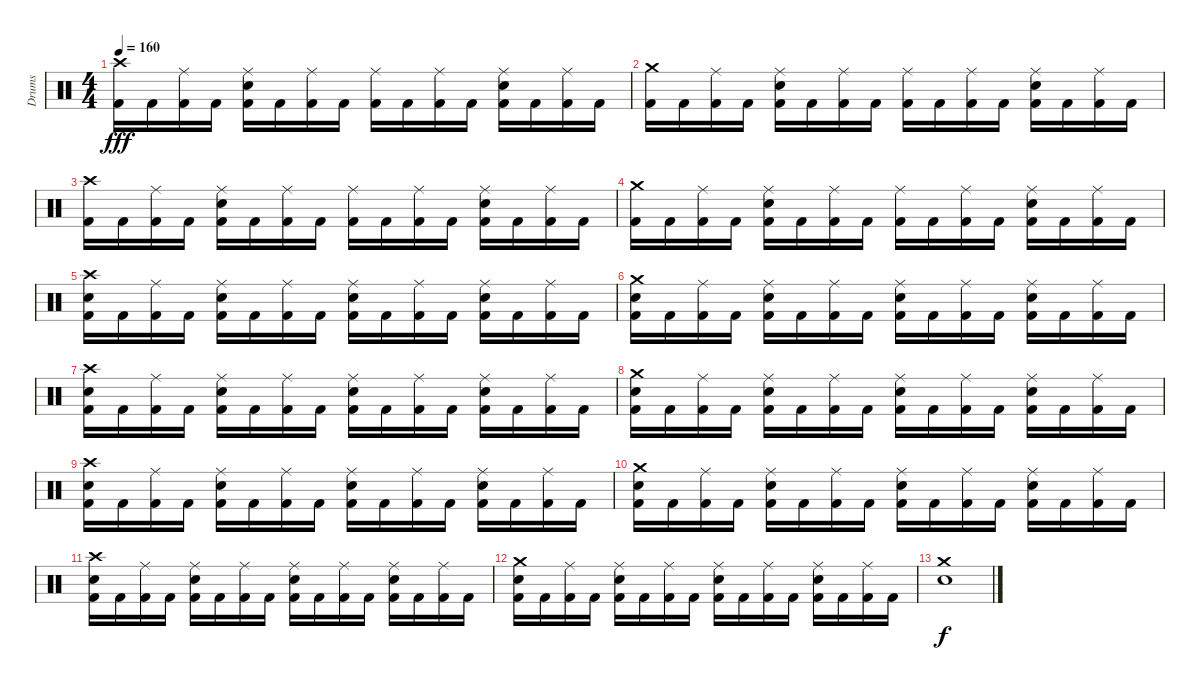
\track ("Drums" "Drums") {instrument percussion}
\staff {score}
\articulation defaults
\ts (4 4)
\tempo 160
\clef neutral
\ks c
("Crash high (hit)" "Kick (hit) 2").16{dy fff} "Kick (hit) 2".16 ("Ride (middle)" "Kick (hit) 2").16 "Kick (hit) 2".16 ("Ride (middle)" "Electric Snare (hit)" "Kick (hit) 2").16 "Kick (hit) 2".16 ("Ride (middle)" "Kick (hit) 2").16 "Kick (hit) 2".16 ("Ride (middle)" "Kick (hit) 2").16 "Kick (hit) 2".16 ("Ride (middle)" "Kick (hit) 2").16 "Kick (hit) 2".16 ("Ride (middle)" "Electric Snare (hit)" "Kick (hit) 2").16 "Kick (hit) 2".16 ("Ride (middle)" "Kick (hit) 2").16 "Kick (hit) 2".16 |
("Crash medium (hit)" "Kick (hit) 2").16 "Kick (hit) 2".16 ("Ride (middle)" "Kick (hit) 2").16 "Kick (hit) 2".16 ("Ride (middle)" "Electric Snare (hit)" "Kick (hit) 2").16 "Kick (hit) 2".16 ("Ride (middle)" "Kick (hit) 2").16 "Kick (hit) 2".16 ("Ride (middle)" "Kick (hit) 2").16 "Kick (hit) 2".16 ("Ride (middle)" "Kick (hit) 2").16 "Kick (hit) 2".16 ("Ride (middle)" "Electric Snare (hit)" "Kick (hit) 2").16 "Kick (hit) 2".16 ("Ride (middle)" "Kick (hit) 2").16 "Kick (hit) 2".16 |
("Crash high (hit)" "Kick (hit) 2").16 "Kick (hit) 2".16 ("Ride (middle)" "Kick (hit) 2").16 "Kick (hit) 2".16 ("Ride (middle)" "Electric Snare (hit)" "Kick (hit) 2").16 "Kick (hit) 2".16 ("Ride (middle)" "Kick (hit) 2").16 "Kick (hit) 2".16 ("Ride (middle)" "Kick (hit) 2").16 "Kick (hit) 2".16 ("Ride (middle)" "Kick (hit) 2").16 "Kick (hit) 2".16 ("Ride (middle)" "Electric Snare (hit)" "Kick (hit) 2").16 "Kick (hit) 2".16 ("Ride (middle)" "Kick (hit) 2").16 "Kick (hit) 2".16 |
("Crash medium (hit)" "Kick (hit) 2").16 "Kick (hit) 2".16 ("Ride (middle)" "Kick (hit) 2").16 "Kick (hit) 2".16 ("Ride (middle)" "Electric Snare (hit)" "Kick (hit) 2").16 "Kick (hit) 2".16 ("Ride (middle)" "Kick (hit) 2").16 "Kick (hit) 2".16 ("Ride (middle)" "Kick (hit) 2").16 "Kick (hit) 2".16 ("Ride (middle)" "Kick (hit) 2").16 "Kick (hit) 2".16 ("Ride (middle)" "Electric Snare (hit)" "Kick (hit) 2").16 "Kick (hit) 2".16 ("Ride (middle)" "Kick (hit) 2").16 "Kick (hit) 2".16 |
("Crash high (hit)" "Electric Snare (hit)" "Kick (hit) 2").16 "Kick (hit) 2".16 ("Ride (middle)" "Kick (hit) 2").16 "Kick (hit) 2".16 ("Ride (middle)" "Electric Snare (hit)" "Kick (hit) 2").16 "Kick (hit) 2".16 ("Ride (middle)" "Kick (hit) 2").16 "Kick (hit) 2".16 ("Ride (middle)" "Electric Snare (hit)" "Kick (hit) 2").16 "Kick (hit) 2".16 ("Ride (middle)" "Kick (hit) 2").16 "Kick (hit) 2".16 ("Ride (middle)" "Electric Snare (hit)" "Kick (hit) 2").16 "Kick (hit) 2".16 ("Ride (middle)" "Kick (hit) 2").16 "Kick (hit) 2".16 |
("Crash medium (hit)" "Electric Snare (hit)" "Kick (hit) 2").16 "Kick (hit) 2".16 ("Ride (middle)" "Kick (hit) 2").16 "Kick (hit) 2".16 ("Ride (middle)" "Electric Snare (hit)" "Kick (hit) 2").16 "Kick (hit) 2".16 ("Ride (middle)" "Kick (hit) 2").16 "Kick (hit) 2".16 ("Ride (middle)" "Electric Snare (hit)" "Kick (hit) 2").16 "Kick (hit) 2".16 ("Ride (middle)" "Kick (hit) 2").16 "Kick (hit) 2".16 ("Ride (middle)" "Electric Snare (hit)" "Kick (hit) 2").16 "Kick (hit) 2".16 ("Ride (middle)" "Kick (hit) 2").16 "Kick (hit) 2".16 |
("Crash high (hit)" "Electric Snare (hit)" "Kick (hit) 2").16 "Kick (hit) 2".16 ("Ride (middle)" "Kick (hit) 2").16 "Kick (hit) 2".16 ("Ride (middle)" "Electric Snare (hit)" "Kick (hit) 2").16 "Kick (hit) 2".16 ("Ride (middle)" "Kick (hit) 2").16 "Kick (hit) 2".16 ("Ride (middle)" "Electric Snare (hit)" "Kick (hit) 2").16 "Kick (hit) 2".16 ("Ride (middle)" "Kick (hit) 2").16 "Kick (hit) 2".16 ("Ride (middle)" "Electric Snare (hit)" "Kick (hit) 2").16 "Kick (hit) 2".16 ("Ride (middle)" "Kick (hit) 2").16 "Kick (hit) 2".16 |
("Crash medium (hit)" "Electric Snare (hit)" "Kick (hit) 2").16 "Kick (hit) 2".16 ("Ride (middle)" "Kick (hit) 2").16 "Kick (hit) 2".16 ("Ride (middle)" "Electric Snare (hit)" "Kick (hit) 2").16 "Kick (hit) 2".16 ("Ride (middle)" "Kick (hit) 2").16 "Kick (hit) 2".16 ("Ride (middle)" "Electric Snare (hit)" "Kick (hit) 2").16 "Kick (hit) 2".16 ("Ride (middle)" "Kick (hit) 2").16 "Kick (hit) 2".16 ("Ride (middle)" "Electric Snare (hit)" "Kick (hit) 2").16 "Kick (hit) 2".16 ("Ride (middle)" "Kick (hit) 2").16 "Kick (hit) 2".16 |
("Crash high (hit)" "Electric Snare (hit)" "Kick (hit) 2").16 "Kick (hit) 2".16 ("Ride (middle)" "Kick (hit) 2").16 "Kick (hit) 2".16 ("Ride (middle)" "Electric Snare (hit)" "Kick (hit) 2").16 "Kick (hit) 2".16 ("Ride (middle)" "Kick (hit) 2").16 "Kick (hit) 2".16 ("Ride (middle)" "Electric Snare (hit)" "Kick (hit) 2").16 "Kick (hit) 2".16 ("Ride (middle)" "Kick (hit) 2").16 "Kick (hit) 2".16 ("Ride (middle)" "Electric Snare (hit)" "Kick (hit) 2").16 "Kick (hit) 2".16 ("Ride (middle)" "Kick (hit) 2").16 "Kick (hit) 2".16 |
("Crash medium (hit)" "Electric Snare (hit)" "Kick (hit) 2").16 "Kick (hit) 2".16 ("Ride (middle)" "Kick (hit) 2").16 "Kick (hit) 2".16 ("Ride (middle)" "Electric Snare (hit)" "Kick (hit) 2").16 "Kick (hit) 2".16 ("Ride (middle)" "Kick (hit) 2").16 "Kick (hit) 2".16 ("Ride (middle)" "Electric Snare (hit)" "Kick (hit) 2").16 "Kick (hit) 2".16 ("Ride (middle)" "Kick (hit) 2").16 "Kick (hit) 2".16 ("Ride (middle)" "Electric Snare (hit)" "Kick (hit) 2").16 "Kick (hit) 2".16 ("Ride (middle)" "Kick (hit) 2").16 "Kick (hit) 2".16 |
("Crash high (hit)" "Electric Snare (hit)" "Kick (hit) 2").16 "Kick (hit) 2".16 ("Ride (middle)" "Kick (hit) 2").16 "Kick (hit) 2".16 ("Ride (middle)" "Electric Snare (hit)" "Kick (hit) 2").16 "Kick (hit) 2".16 ("Ride (middle)" "Kick (hit) 2").16 "Kick (hit) 2".16 ("Ride (middle)" "Electric Snare (hit)" "Kick (hit) 2").16 "Kick (hit) 2".16 ("Ride (middle)" "Kick (hit) 2").16 "Kick (hit) 2".16 ("Ride (middle)" "Electric Snare (hit)" "Kick (hit) 2").16 "Kick (hit) 2".16 ("Ride (middle)" "Kick (hit) 2").16 "Kick (hit) 2".16 |
("Crash medium (hit)" "Electric Snare (hit)" "Kick (hit) 2").16 "Kick (hit) 2".16 ("Ride (middle)" "Kick (hit) 2").16 "Kick (hit) 2".16 ("Ride (middle)" "Electric Snare (hit)" "Kick (hit) 2").16 "Kick (hit) 2".16 ("Ride (middle)" "Kick (hit) 2").16 "Kick (hit) 2".16 ("Ride (middle)" "Electric Snare (hit)" "Kick (hit) 2").16 "Kick (hit) 2".16 ("Ride (middle)" "Kick (hit) 2").16 "Kick (hit) 2".16 ("Ride (middle)" "Electric Snare (hit)" "Kick (hit) 2").16 "Kick (hit) 2".16 ("Ride (middle)" "Kick (hit) 2").16 "Kick (hit) 2".16 |
("Crash medium (hit)" "Electric Snare (hit)").1{dy f}
